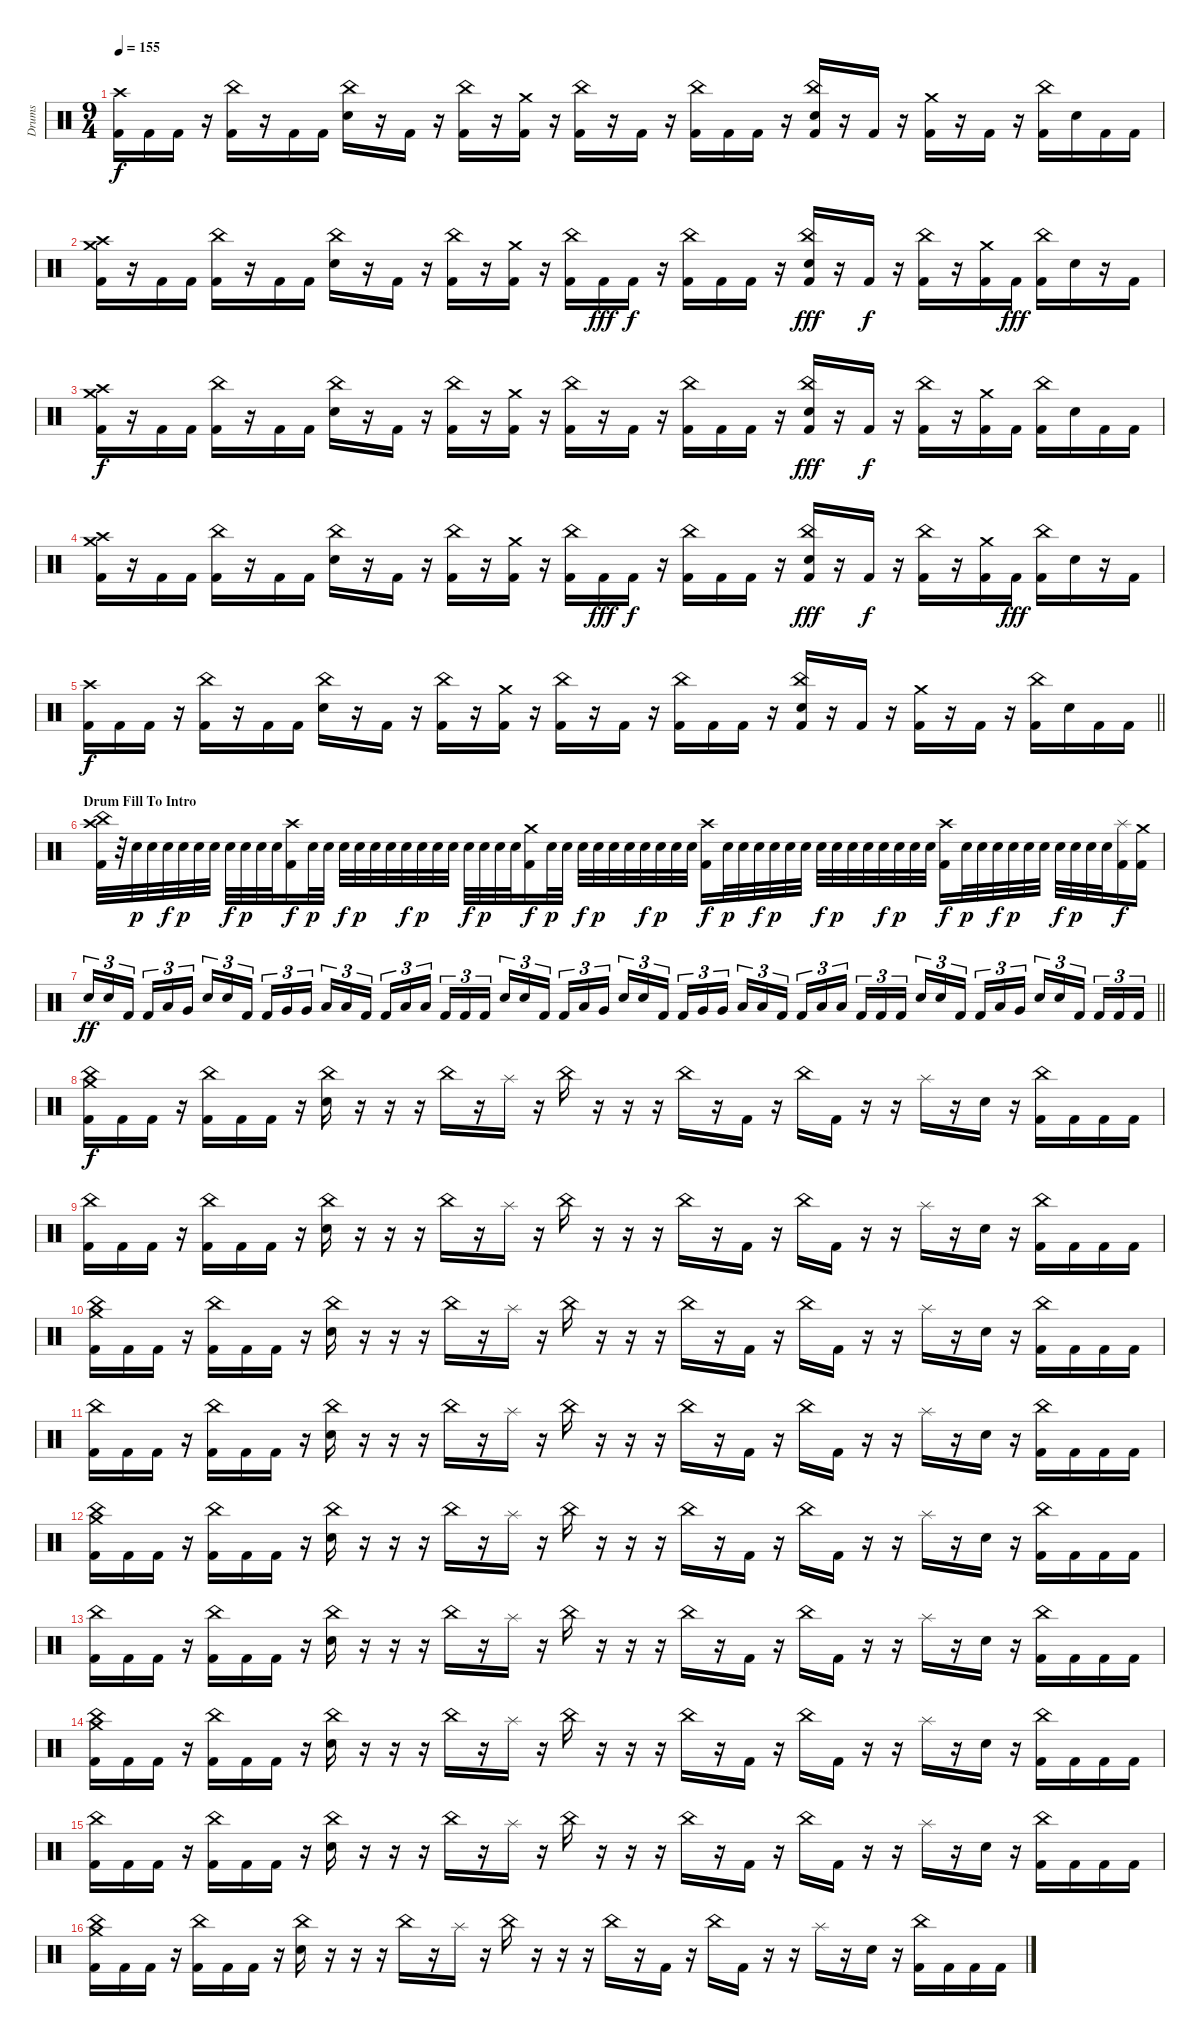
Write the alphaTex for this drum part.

\track ("Drums" "Drums") {instrument percussion}
\staff {score}
\articulation defaults
\ts (9 4)
\tempo 155
\clef neutral
\ks c
("Crash high (hit)" "Kick (hit) 2").16{dy f} "Kick (hit) 2".16 "Kick (hit) 2".16 r.16 ("China (hit)" "Kick (hit) 2").16 r.16 "Kick (hit) 2".16 "Kick (hit) 2".16 ("China (hit)" "Electric Snare (hit)").16 r.16 "Kick (hit) 2".16 r.16 ("China (hit)" "Kick (hit) 2").16 r.16 ("Crash medium (hit)" "Kick (hit) 2").16 r.16 ("China (hit)" "Kick (hit) 2").16 r.16 "Kick (hit) 2".16 r.16 ("China (hit)" "Kick (hit) 2").16 "Kick (hit) 2".16 "Kick (hit) 2".16 r.16 ("China (hit)" "Electric Snare (hit)" "Kick (hit) 2").16 r.16 "Kick (hit) 2".16 r.16 ("Crash medium (hit)" "Kick (hit) 2").16 r.16 "Kick (hit) 2".16 r.16 ("China (hit)" "Kick (hit) 2").16 "Electric Snare (hit)".16 "Kick (hit) 2".16 "Kick (hit) 2".16 |
("Crash high (hit)" "Crash medium (hit)" "Kick (hit) 2").16 r.16 "Kick (hit) 2".16 "Kick (hit) 2".16 ("China (hit)" "Kick (hit) 2").16 r.16 "Kick (hit) 2".16 "Kick (hit) 2".16 ("China (hit)" "Electric Snare (hit)").16 r.16 "Kick (hit) 2".16 r.16 ("China (hit)" "Kick (hit) 2").16 r.16 ("Crash medium (hit)" "Kick (hit) 2").16 r.16 ("China (hit)" "Kick (hit) 2").16 "Kick (hit) 2".16{dy fff} "Kick (hit) 2".16{dy f} r.16 ("China (hit)" "Kick (hit) 2").16 "Kick (hit) 2".16 "Kick (hit) 2".16 r.16 ("China (hit)" "Electric Snare (hit)" "Kick (hit) 2").16{dy fff} r.16 "Kick (hit) 2".16{dy f} r.16 ("China (hit)" "Kick (hit) 2").16 r.16 ("Crash medium (hit)" "Kick (hit) 2").16 "Kick (hit) 2".16{dy fff} ("China (hit)" "Kick (hit) 2").16 "Electric Snare (hit)".16 r.16 "Kick (hit) 2".16 |
("Crash high (hit)" "Crash medium (hit)" "Kick (hit) 2").16{dy f} r.16 "Kick (hit) 2".16 "Kick (hit) 2".16 ("China (hit)" "Kick (hit) 2").16 r.16 "Kick (hit) 2".16 "Kick (hit) 2".16 ("China (hit)" "Electric Snare (hit)").16 r.16 "Kick (hit) 2".16 r.16 ("China (hit)" "Kick (hit) 2").16 r.16 ("Crash medium (hit)" "Kick (hit) 2").16 r.16 ("China (hit)" "Kick (hit) 2").16 r.16 "Kick (hit) 2".16 r.16 ("China (hit)" "Kick (hit) 2").16 "Kick (hit) 2".16 "Kick (hit) 2".16 r.16 ("China (hit)" "Electric Snare (hit)" "Kick (hit) 2").16{dy fff} r.16 "Kick (hit) 2".16{dy f} r.16 ("China (hit)" "Kick (hit) 2").16 r.16 ("Crash medium (hit)" "Kick (hit) 2").16 "Kick (hit) 2".16 ("China (hit)" "Kick (hit) 2").16 "Electric Snare (hit)".16 "Kick (hit) 2".16 "Kick (hit) 2".16 |
("Crash high (hit)" "Crash medium (hit)" "Kick (hit) 2").16 r.16 "Kick (hit) 2".16 "Kick (hit) 2".16 ("China (hit)" "Kick (hit) 2").16 r.16 "Kick (hit) 2".16 "Kick (hit) 2".16 ("China (hit)" "Electric Snare (hit)").16 r.16 "Kick (hit) 2".16 r.16 ("China (hit)" "Kick (hit) 2").16 r.16 ("Crash medium (hit)" "Kick (hit) 2").16 r.16 ("China (hit)" "Kick (hit) 2").16 "Kick (hit) 2".16{dy fff} "Kick (hit) 2".16{dy f} r.16 ("China (hit)" "Kick (hit) 2").16 "Kick (hit) 2".16 "Kick (hit) 2".16 r.16 ("China (hit)" "Electric Snare (hit)" "Kick (hit) 2").16{dy fff} r.16 "Kick (hit) 2".16{dy f} r.16 ("China (hit)" "Kick (hit) 2").16 r.16 ("Crash medium (hit)" "Kick (hit) 2").16 "Kick (hit) 2".16{dy fff} ("China (hit)" "Kick (hit) 2").16 "Electric Snare (hit)".16 r.16 "Kick (hit) 2".16 |
\barLineRight lightlight
("Crash high (hit)" "Kick (hit) 2").16{dy f} "Kick (hit) 2".16 "Kick (hit) 2".16 r.16 ("China (hit)" "Kick (hit) 2").16 r.16 "Kick (hit) 2".16 "Kick (hit) 2".16 ("China (hit)" "Electric Snare (hit)").16 r.16 "Kick (hit) 2".16 r.16 ("China (hit)" "Kick (hit) 2").16 r.16 ("Crash medium (hit)" "Kick (hit) 2").16 r.16 ("China (hit)" "Kick (hit) 2").16 r.16 "Kick (hit) 2".16 r.16 ("China (hit)" "Kick (hit) 2").16 "Kick (hit) 2".16 "Kick (hit) 2".16 r.16 ("China (hit)" "Electric Snare (hit)" "Kick (hit) 2").16 r.16 "Kick (hit) 2".16 r.16 ("Crash medium (hit)" "Kick (hit) 2").16 r.16 "Kick (hit) 2".16 r.16 ("China (hit)" "Kick (hit) 2").16 "Electric Snare (hit)".16 "Kick (hit) 2".16 "Kick (hit) 2".16 |
\section ("" "Drum Fill To Intro")
("Crash high (hit)" "China (hit)" "Kick (hit) 2").32 r.32 "Electric Snare (hit)".32{dy p} "Electric Snare (hit)".32 "Electric Snare (hit)".32{dy f} "Electric Snare (hit)".32{dy p} "Electric Snare (hit)".32 "Electric Snare (hit)".32 "Electric Snare (hit)".32{dy f} "Electric Snare (hit)".32{dy p} "Electric Snare (hit)".32 "Electric Snare (hit)".32 ("Crash high (hit)" "Kick (hit) 2").16{dy f} "Electric Snare (hit)".32{dy p} "Electric Snare (hit)".32 "Electric Snare (hit)".32{dy f} "Electric Snare (hit)".32{dy p} "Electric Snare (hit)".32 "Electric Snare (hit)".32 "Electric Snare (hit)".32{dy f} "Electric Snare (hit)".32{dy p} "Electric Snare (hit)".32 "Electric Snare (hit)".32 "Electric Snare (hit)".32{dy f} "Electric Snare (hit)".32{dy p} "Electric Snare (hit)".32 "Electric Snare (hit)".32 ("Crash medium (hit)" "Kick (hit) 2").16{dy f} "Electric Snare (hit)".32{dy p} "Electric Snare (hit)".32 "Electric Snare (hit)".32{dy f} "Electric Snare (hit)".32{dy p} "Electric Snare (hit)".32 "Electric Snare (hit)".32 "Electric Snare (hit)".32{dy f} "Electric Snare (hit)".32{dy p} "Electric Snare (hit)".32 "Electric Snare (hit)".32 ("Crash high (hit)" "Kick (hit) 2").16{dy f} "Electric Snare (hit)".32{dy p} "Electric Snare (hit)".32 "Electric Snare (hit)".32{dy f} "Electric Snare (hit)".32{dy p} "Electric Snare (hit)".32 "Electric Snare (hit)".32 "Electric Snare (hit)".32{dy f} "Electric Snare (hit)".32{dy p} "Electric Snare (hit)".32 "Electric Snare (hit)".32 "Electric Snare (hit)".32{dy f} "Electric Snare (hit)".32{dy p} "Electric Snare (hit)".32 "Electric Snare (hit)".32 ("Crash high (hit)" "Kick (hit) 2").16{dy f} "Electric Snare (hit)".32{dy p} "Electric Snare (hit)".32 "Electric Snare (hit)".32{dy f} "Electric Snare (hit)".32{dy p} "Electric Snare (hit)".32 "Electric Snare (hit)".32 "Electric Snare (hit)".32{dy f} "Electric Snare (hit)".32{dy p} "Electric Snare (hit)".32 "Electric Snare (hit)".32 ("Splash (hit)" "Kick (hit) 2").16{dy f} ("Crash medium (hit)" "Kick (hit) 2").16 |
\barLineRight lightlight "Electric Snare (hit)".16{tu (3 2) dy ff} "Electric Snare (hit)".16{tu (3 2)} "Kick (hit) 2".16{tu (3 2) beam splitsecondary} "Kick (hit) 2".16{tu (3 2)} "Low Tom (hit)".16{tu (3 2)} "Very Low Tom (hit)".16{tu (3 2) beam splitsecondary} "Electric Snare (hit)".16{tu (3 2)} "Electric Snare (hit)".16{tu (3 2)} "Kick (hit) 2".16{tu (3 2) beam splitsecondary} "Kick (hit) 2".16{tu (3 2)} "Very Low Tom (hit)".16{tu (3 2)} "Very Low Tom (hit)".16{tu (3 2) beam splitsecondary} "Low Tom (hit)".16{tu (3 2)} "Low Tom (hit)".16{tu (3 2)} "Kick (hit) 2".16{tu (3 2) beam splitsecondary} "Kick (hit) 2".16{tu (3 2)} "Low Tom (hit)".16{tu (3 2)} "Low Tom (hit)".16{tu (3 2)} "Kick (hit) 2".16{tu (3 2)} "Kick (hit) 2".16{tu (3 2)} "Kick (hit) 2".16{tu (3 2) beam splitsecondary} "Electric Snare (hit)".16{tu (3 2)} "Electric Snare (hit)".16{tu (3 2)} "Kick (hit) 2".16{tu (3 2) beam splitsecondary} "Kick (hit) 2".16{tu (3 2)} "Low Tom (hit)".16{tu (3 2)} "Very Low Tom (hit)".16{tu (3 2) beam splitsecondary} "Electric Snare (hit)".16{tu (3 2)} "Electric Snare (hit)".16{tu (3 2)} "Kick (hit) 2".16{tu (3 2) beam splitsecondary} "Kick (hit) 2".16{tu (3 2)} "Very Low Tom (hit)".16{tu (3 2)} "Very Low Tom (hit)".16{tu (3 2) beam splitsecondary} "Low Tom (hit)".16{tu (3 2)} "Low Tom (hit)".16{tu (3 2)} "Kick (hit) 2".16{tu (3 2)} "Kick (hit) 2".16{tu (3 2)} "Low Tom (hit)".16{tu (3 2)} "Low Tom (hit)".16{tu (3 2) beam splitsecondary} "Kick (hit) 2".16{tu (3 2)} "Kick (hit) 2".16{tu (3 2)} "Kick (hit) 2".16{tu (3 2) beam splitsecondary} "Electric Snare (hit)".16{tu (3 2)} "Electric Snare (hit)".16{tu (3 2)} "Kick (hit) 2".16{tu (3 2) beam splitsecondary} "Kick (hit) 2".16{tu (3 2)} "Low Tom (hit)".16{tu (3 2)} "Very Low Tom (hit)".16{tu (3 2) beam splitsecondary} "Electric Snare (hit)".16{tu (3 2)} "Electric Snare (hit)".16{tu (3 2)} "Kick (hit) 2".16{tu (3 2) beam splitsecondary} "Kick (hit) 2".16{tu (3 2)} "Kick (hit) 2".16{tu (3 2)} "Kick (hit) 2".16{tu (3 2)}
|
("China (hit)" "Crash medium (hit)" "Kick (hit) 2").16{dy f} "Kick (hit) 2".16 "Kick (hit) 2".16 r.16 ("China (hit)" "Kick (hit) 2").16 "Kick (hit) 2".16 "Kick (hit) 2".16 r.16 ("China (hit)" "Electric Snare (hit)").16 r.16 r.16 r.16 "China (hit)".16 r.16 "Splash (hit)".16 r.16 "China (hit)".16 r.16 r.16 r.16 "China (hit)".16 r.16 "Kick (hit) 2".16 r.16 "China (hit)".16 "Kick (hit) 2".16 r.16 r.16 "Splash (hit)".16 r.16 "Electric Snare (hit)".16 r.16 ("China (hit)" "Kick (hit) 2").16 "Kick (hit) 2".16 "Kick (hit) 2".16 "Kick (hit) 2".16 |
("China (hit)" "Kick (hit) 2").16 "Kick (hit) 2".16 "Kick (hit) 2".16 r.16 ("China (hit)" "Kick (hit) 2").16 "Kick (hit) 2".16 "Kick (hit) 2".16 r.16 ("China (hit)" "Electric Snare (hit)").16 r.16 r.16 r.16 "China (hit)".16 r.16 "Splash (hit)".16 r.16 "China (hit)".16 r.16 r.16 r.16 "China (hit)".16 r.16 "Kick (hit) 2".16 r.16 "China (hit)".16 "Kick (hit) 2".16 r.16 r.16 "Splash (hit)".16 r.16 "Electric Snare (hit)".16 r.16 ("China (hit)" "Kick (hit) 2").16 "Kick (hit) 2".16 "Kick (hit) 2".16 "Kick (hit) 2".16 |
("China (hit)" "Crash medium (hit)" "Kick (hit) 2").16 "Kick (hit) 2".16 "Kick (hit) 2".16 r.16 ("China (hit)" "Kick (hit) 2").16 "Kick (hit) 2".16 "Kick (hit) 2".16 r.16 ("China (hit)" "Electric Snare (hit)").16 r.16 r.16 r.16 "China (hit)".16 r.16 "Splash (hit)".16 r.16 "China (hit)".16 r.16 r.16 r.16 "China (hit)".16 r.16 "Kick (hit) 2".16 r.16 "China (hit)".16 "Kick (hit) 2".16 r.16 r.16 "Splash (hit)".16 r.16 "Electric Snare (hit)".16 r.16 ("China (hit)" "Kick (hit) 2").16 "Kick (hit) 2".16 "Kick (hit) 2".16 "Kick (hit) 2".16 |
("China (hit)" "Kick (hit) 2").16 "Kick (hit) 2".16 "Kick (hit) 2".16 r.16 ("China (hit)" "Kick (hit) 2").16 "Kick (hit) 2".16 "Kick (hit) 2".16 r.16 ("China (hit)" "Electric Snare (hit)").16 r.16 r.16 r.16 "China (hit)".16 r.16 "Splash (hit)".16 r.16 "China (hit)".16 r.16 r.16 r.16 "China (hit)".16 r.16 "Kick (hit) 2".16 r.16 "China (hit)".16 "Kick (hit) 2".16 r.16 r.16 "Splash (hit)".16 r.16 "Electric Snare (hit)".16 r.16 ("China (hit)" "Kick (hit) 2").16 "Kick (hit) 2".16 "Kick (hit) 2".16 "Kick (hit) 2".16 |
("China (hit)" "Crash medium (hit)" "Kick (hit) 2").16 "Kick (hit) 2".16 "Kick (hit) 2".16 r.16 ("China (hit)" "Kick (hit) 2").16 "Kick (hit) 2".16 "Kick (hit) 2".16 r.16 ("China (hit)" "Electric Snare (hit)").16 r.16 r.16 r.16 "China (hit)".16 r.16 "Splash (hit)".16 r.16 "China (hit)".16 r.16 r.16 r.16 "China (hit)".16 r.16 "Kick (hit) 2".16 r.16 "China (hit)".16 "Kick (hit) 2".16 r.16 r.16 "Splash (hit)".16 r.16 "Electric Snare (hit)".16 r.16 ("China (hit)" "Kick (hit) 2").16 "Kick (hit) 2".16 "Kick (hit) 2".16 "Kick (hit) 2".16 |
("China (hit)" "Kick (hit) 2").16 "Kick (hit) 2".16 "Kick (hit) 2".16 r.16 ("China (hit)" "Kick (hit) 2").16 "Kick (hit) 2".16 "Kick (hit) 2".16 r.16 ("China (hit)" "Electric Snare (hit)").16 r.16 r.16 r.16 "China (hit)".16 r.16 "Splash (hit)".16 r.16 "China (hit)".16 r.16 r.16 r.16 "China (hit)".16 r.16 "Kick (hit) 2".16 r.16 "China (hit)".16 "Kick (hit) 2".16 r.16 r.16 "Splash (hit)".16 r.16 "Electric Snare (hit)".16 r.16 ("China (hit)" "Kick (hit) 2").16 "Kick (hit) 2".16 "Kick (hit) 2".16 "Kick (hit) 2".16 |
("China (hit)" "Crash medium (hit)" "Kick (hit) 2").16 "Kick (hit) 2".16 "Kick (hit) 2".16 r.16 ("China (hit)" "Kick (hit) 2").16 "Kick (hit) 2".16 "Kick (hit) 2".16 r.16 ("China (hit)" "Electric Snare (hit)").16 r.16 r.16 r.16 "China (hit)".16 r.16 "Splash (hit)".16 r.16 "China (hit)".16 r.16 r.16 r.16 "China (hit)".16 r.16 "Kick (hit) 2".16 r.16 "China (hit)".16 "Kick (hit) 2".16 r.16 r.16 "Splash (hit)".16 r.16 "Electric Snare (hit)".16 r.16 ("China (hit)" "Kick (hit) 2").16 "Kick (hit) 2".16 "Kick (hit) 2".16 "Kick (hit) 2".16 |
("China (hit)" "Kick (hit) 2").16 "Kick (hit) 2".16 "Kick (hit) 2".16 r.16 ("China (hit)" "Kick (hit) 2").16 "Kick (hit) 2".16 "Kick (hit) 2".16 r.16 ("China (hit)" "Electric Snare (hit)").16 r.16 r.16 r.16 "China (hit)".16 r.16 "Splash (hit)".16 r.16 "China (hit)".16 r.16 r.16 r.16 "China (hit)".16 r.16 "Kick (hit) 2".16 r.16 "China (hit)".16 "Kick (hit) 2".16 r.16 r.16 "Splash (hit)".16 r.16 "Electric Snare (hit)".16 r.16 ("China (hit)" "Kick (hit) 2").16 "Kick (hit) 2".16 "Kick (hit) 2".16 "Kick (hit) 2".16 |
("China (hit)" "Crash medium (hit)" "Kick (hit) 2").16 "Kick (hit) 2".16 "Kick (hit) 2".16 r.16 ("China (hit)" "Kick (hit) 2").16 "Kick (hit) 2".16 "Kick (hit) 2".16 r.16 ("China (hit)" "Electric Snare (hit)").16 r.16 r.16 r.16 "China (hit)".16 r.16 "Splash (hit)".16 r.16 "China (hit)".16 r.16 r.16 r.16 "China (hit)".16 r.16 "Kick (hit) 2".16 r.16 "China (hit)".16 "Kick (hit) 2".16 r.16 r.16 "Splash (hit)".16 r.16 "Electric Snare (hit)".16 r.16 ("China (hit)" "Kick (hit) 2").16 "Kick (hit) 2".16 "Kick (hit) 2".16 "Kick (hit) 2".16
